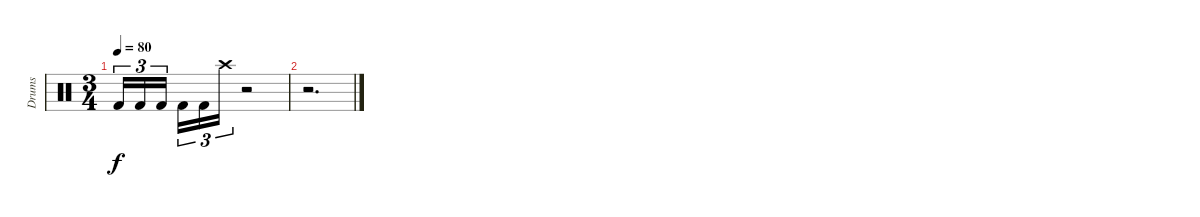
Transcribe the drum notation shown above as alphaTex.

\track ("Drums" "Drums") {instrument percussion}
\staff {score}
\articulation defaults
\ts (3 4)
\tempo 80
\clef neutral
\ks c "Kick (hit) 2".16{tu (3 2) dy f} "Kick (hit) 2".16{tu (3 2)} "Kick (hit) 2".16{tu (3 2)} "Kick (hit) 2".16{tu (3 2)} "Kick (hit) 2".16{tu (3 2)} "Crash high (hit)".16{tu (3 2)}
r.2 |
r.2{d}
